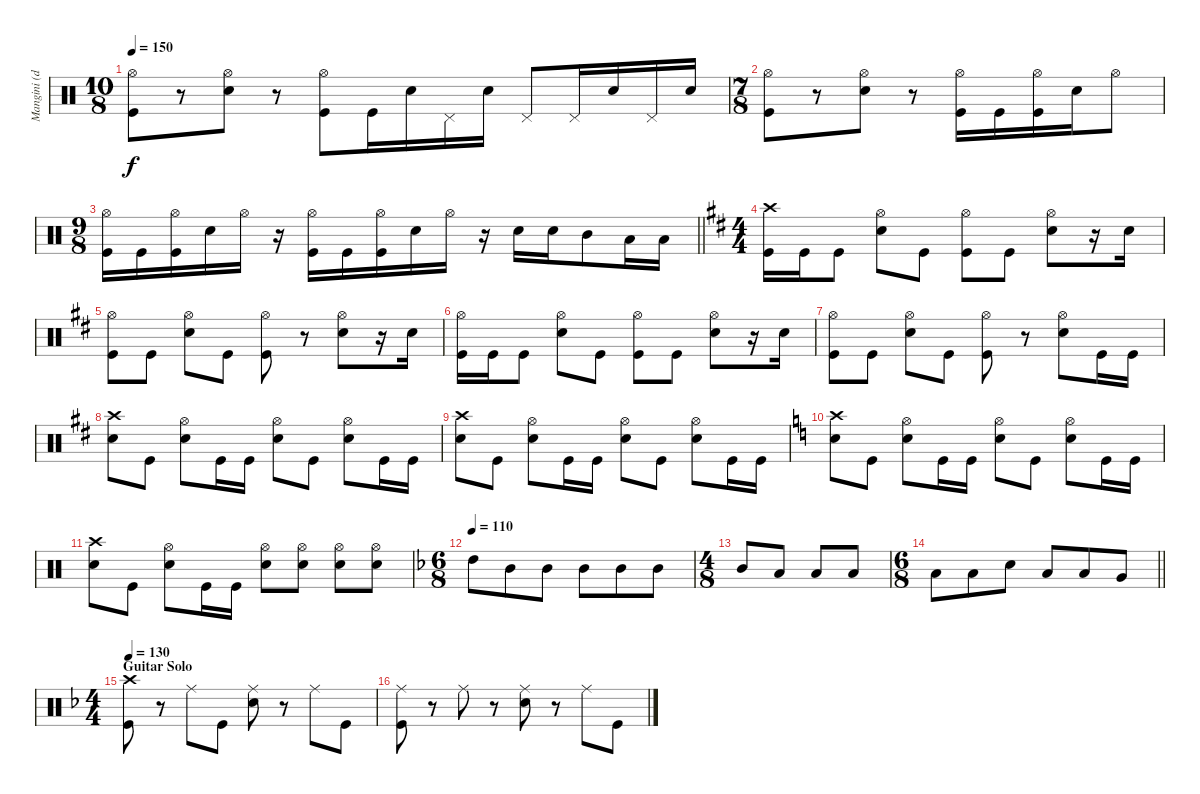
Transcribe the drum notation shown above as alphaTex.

\track ("Mangini (drums)" "Mangini (d") {instrument percussion}
\staff {score}
\articulation defaults
\ts (10 8)
\tempo 150
\clef neutral
\ks aminor
("Hi-Hat (open)" "Kick (hit)").8{dy f} r.8 ("Hi-Hat (open)" "Snare (hit) 2").8 r.8 ("Hi-Hat (open)" "Kick (hit)").8{beam merge} "Kick (hit)".16 "Snare (hit) 2".16{beam merge} "Pedal Hi-Hat (hit)".16 "Snare (hit) 2".16 "Pedal Hi-Hat (hit)".8{beam merge} "Pedal Hi-Hat (hit)".16 "Snare (hit) 2".16{beam merge} "Pedal Hi-Hat (hit)".16 "Snare (hit) 2".16 |
\ts (7 8)
("Hi-Hat (open)" "Kick (hit)").8 r.8 ("Hi-Hat (open)" "Snare (hit) 2").8 r.8 ("Hi-Hat (open)" "Kick (hit)").16 "Kick (hit)".16{beam merge} ("Hi-Hat (open)" "Kick (hit)").16 "Snare (hit) 2".16{beam merge} "Hi-Hat (open)".8 |
\ts (9 8)
\barLineRight lightlight
("Hi-Hat (open)" "Kick (hit)").16 "Kick (hit)".16 ("Hi-Hat (open)" "Kick (hit)").16 "Snare (hit) 2".16 "Hi-Hat (open)".16 r.16 ("Hi-Hat (open)" "Kick (hit)").16 "Kick (hit)".16 ("Hi-Hat (open)" "Kick (hit)").16 "Snare (hit) 2".16 "Hi-Hat (open)".16 r.16 "Snare (hit) 2".16 "Snare (hit) 2".16 "Mid Tom (hit)".8 "Low Tom (hit)".16 "Low Tom (hit)".16 |
\ts (4 4)
\ks d
("Crash high (hit)" "Kick (hit)").16 "Kick (hit)".16 "Kick (hit)".8 ("Hi-Hat (open)" "Snare (hit) 2").8 "Kick (hit)".8 ("Hi-Hat (open)" "Kick (hit)").8 "Kick (hit)".8 ("Hi-Hat (open)" "Snare (hit) 2").8 r.16 "Snare (hit) 2".16 |
("Hi-Hat (open)" "Kick (hit)").8 "Kick (hit)".8 ("Hi-Hat (open)" "Snare (hit) 2").8 "Kick (hit)".8 ("Hi-Hat (open)" "Kick (hit)").8 r.8 ("Hi-Hat (open)" "Snare (hit) 2").8 r.16 "Snare (hit) 2".16 |
("Hi-Hat (open)" "Kick (hit)").16 "Kick (hit)".16 "Kick (hit)".8 ("Hi-Hat (open)" "Snare (hit) 2").8 "Kick (hit)".8 ("Hi-Hat (open)" "Kick (hit)").8 "Kick (hit)".8 ("Hi-Hat (open)" "Snare (hit) 2").8 r.16 "Snare (hit) 2".16 |
("Hi-Hat (open)" "Kick (hit)").8 "Kick (hit)".8 ("Hi-Hat (open)" "Snare (hit) 2").8 "Kick (hit)".8 ("Hi-Hat (open)" "Kick (hit)").8 r.8 ("Hi-Hat (open)" "Snare (hit) 2").8 "Kick (hit)".16 "Kick (hit)".16 |
("Crash high (hit)" "Snare (hit) 2").8 "Kick (hit)".8 ("Hi-Hat (open)" "Snare (hit) 2").8 "Kick (hit)".16 "Kick (hit)".16 ("Hi-Hat (open)" "Snare (hit) 2").8 "Kick (hit)".8 ("Hi-Hat (open)" "Snare (hit) 2").8 "Kick (hit)".16 "Kick (hit)".16 |
("Crash high (hit)" "Snare (hit) 2").8 "Kick (hit)".8 ("Hi-Hat (open)" "Snare (hit) 2").8 "Kick (hit)".16 "Kick (hit)".16 ("Hi-Hat (open)" "Snare (hit) 2").8 "Kick (hit)".8 ("Hi-Hat (open)" "Snare (hit) 2").8 "Kick (hit)".16 "Kick (hit)".16 |
\ks c
("Crash high (hit)" "Snare (hit) 2").8 "Kick (hit)".8 ("Hi-Hat (open)" "Snare (hit) 2").8 "Kick (hit)".16 "Kick (hit)".16 ("Hi-Hat (open)" "Snare (hit) 2").8 "Kick (hit)".8 ("Hi-Hat (open)" "Snare (hit) 2").8 "Kick (hit)".16 "Kick (hit)".16 |
("Crash high (hit)" "Snare (hit) 2").8 "Kick (hit)".8 ("Hi-Hat (open)" "Snare (hit) 2").8 "Kick (hit)".16 "Kick (hit)".16 ("Hi-Hat (open)" "Snare (hit) 2").8 ("Hi-Hat (open)" "Snare (hit) 2").8 ("Hi-Hat (open)" "Snare (hit) 2").8 ("Hi-Hat (open)" "Snare (hit) 2").8 |
\ts (6 8)
\tempo 110
\ks dminor "High Tom (hit)".8 "Mid Tom (hit)".8 "Mid Tom (hit)".8 "Mid Tom (hit)".8 "Mid Tom (hit)".8 "Mid Tom (hit)".8
|
\ts (4 8)
"Mid Tom (hit)".8 "Low Tom (hit)".8 "Low Tom (hit)".8 "Low Tom (hit)".8 |
\ts (6 8)
\barLineRight lightlight "Low Tom (hit)".8 "Low Tom (hit)".8 "Snare (hit) 2".8 "Low Tom (hit)".8 "Low Tom (hit)".8 "Very Low Tom (hit)".8
|
\ts (4 4)
\section ("" "Guitar Solo")
\tempo 130
("Crash high (hit)" "Kick (hit)").8 r.8 "Ride (middle)".8 "Kick (hit)".8 ("Ride (middle)" "Snare (hit) 2").8 r.8 "Ride (middle)".8 "Kick (hit)".8 |
("Ride (middle)" "Kick (hit)").8 r.8 "Ride (middle)".8 r.8 ("Ride (middle)" "Snare (hit) 2").8 r.8 "Ride (middle)".8 "Kick (hit)".8
